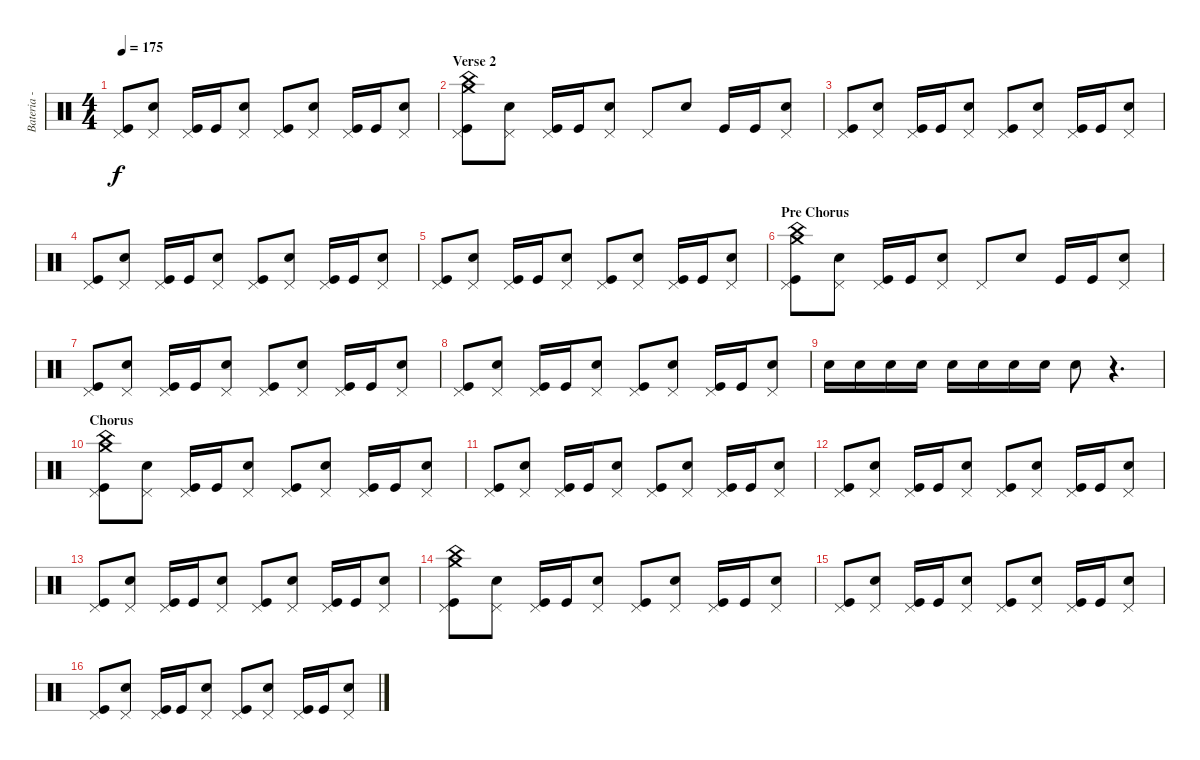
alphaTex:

\track ("Bateria - Larzon" "Bateria - ") {instrument percussion}
\staff {score}
\articulation defaults
\ts (4 4)
\tempo 175
\clef neutral
\ks c
("Kick (hit)" "Pedal Hi-Hat (hit)").8{dy f} ("Snare (hit) 2" "Pedal Hi-Hat (hit)").8 ("Kick (hit)" "Pedal Hi-Hat (hit)").16 "Kick (hit)".16 ("Snare (hit) 2" "Pedal Hi-Hat (hit)").8 ("Pedal Hi-Hat (hit)" "Kick (hit)").8 ("Snare (hit) 2" "Pedal Hi-Hat (hit)").8 ("Kick (hit)" "Pedal Hi-Hat (hit)").16 "Kick (hit)".16 ("Snare (hit) 2" "Pedal Hi-Hat (hit)").8 |
\section ("" "Verse 2")
("China (hit)" "Crash medium (hit)" "Pedal Hi-Hat (hit)" "Kick (hit)").8 ("Snare (hit) 2" "Pedal Hi-Hat (hit)").8 ("Kick (hit)" "Pedal Hi-Hat (hit)").16 "Kick (hit)".16 ("Snare (hit) 2" "Pedal Hi-Hat (hit)").8 "Pedal Hi-Hat (hit)".8 "Snare (hit) 2".8 "Kick (hit)".16 "Kick (hit)".16 ("Snare (hit) 2" "Pedal Hi-Hat (hit)").8 |
("Kick (hit)" "Pedal Hi-Hat (hit)").8 ("Snare (hit) 2" "Pedal Hi-Hat (hit)").8 ("Kick (hit)" "Pedal Hi-Hat (hit)").16 "Kick (hit)".16 ("Snare (hit) 2" "Pedal Hi-Hat (hit)").8 ("Pedal Hi-Hat (hit)" "Kick (hit)").8 ("Snare (hit) 2" "Pedal Hi-Hat (hit)").8 ("Kick (hit)" "Pedal Hi-Hat (hit)").16 "Kick (hit)".16 ("Snare (hit) 2" "Pedal Hi-Hat (hit)").8 |
("Kick (hit)" "Pedal Hi-Hat (hit)").8 ("Snare (hit) 2" "Pedal Hi-Hat (hit)").8 ("Kick (hit)" "Pedal Hi-Hat (hit)").16 "Kick (hit)".16 ("Snare (hit) 2" "Pedal Hi-Hat (hit)").8 ("Pedal Hi-Hat (hit)" "Kick (hit)").8 ("Snare (hit) 2" "Pedal Hi-Hat (hit)").8 ("Kick (hit)" "Pedal Hi-Hat (hit)").16 "Kick (hit)".16 ("Snare (hit) 2" "Pedal Hi-Hat (hit)").8 |
("Kick (hit)" "Pedal Hi-Hat (hit)").8 ("Snare (hit) 2" "Pedal Hi-Hat (hit)").8 ("Kick (hit)" "Pedal Hi-Hat (hit)").16 "Kick (hit)".16 ("Snare (hit) 2" "Pedal Hi-Hat (hit)").8 ("Pedal Hi-Hat (hit)" "Kick (hit)").8 ("Snare (hit) 2" "Pedal Hi-Hat (hit)").8 ("Kick (hit)" "Pedal Hi-Hat (hit)").16 "Kick (hit)".16 ("Snare (hit) 2" "Pedal Hi-Hat (hit)").8 |
\section ("" "Pre Chorus")
("China (hit)" "Crash medium (hit)" "Pedal Hi-Hat (hit)" "Kick (hit)").8 ("Snare (hit) 2" "Pedal Hi-Hat (hit)").8 ("Kick (hit)" "Pedal Hi-Hat (hit)").16 "Kick (hit)".16 ("Snare (hit) 2" "Pedal Hi-Hat (hit)").8 "Pedal Hi-Hat (hit)".8 "Snare (hit) 2".8 "Kick (hit)".16 "Kick (hit)".16 ("Snare (hit) 2" "Pedal Hi-Hat (hit)").8 |
("Kick (hit)" "Pedal Hi-Hat (hit)").8 ("Snare (hit) 2" "Pedal Hi-Hat (hit)").8 ("Kick (hit)" "Pedal Hi-Hat (hit)").16 "Kick (hit)".16 ("Snare (hit) 2" "Pedal Hi-Hat (hit)").8 ("Pedal Hi-Hat (hit)" "Kick (hit)").8 ("Snare (hit) 2" "Pedal Hi-Hat (hit)").8 ("Kick (hit)" "Pedal Hi-Hat (hit)").16 "Kick (hit)".16 ("Snare (hit) 2" "Pedal Hi-Hat (hit)").8 |
("Kick (hit)" "Pedal Hi-Hat (hit)").8 ("Snare (hit) 2" "Pedal Hi-Hat (hit)").8 ("Kick (hit)" "Pedal Hi-Hat (hit)").16 "Kick (hit)".16 ("Snare (hit) 2" "Pedal Hi-Hat (hit)").8 ("Pedal Hi-Hat (hit)" "Kick (hit)").8 ("Snare (hit) 2" "Pedal Hi-Hat (hit)").8 ("Kick (hit)" "Pedal Hi-Hat (hit)").16 "Kick (hit)".16 ("Snare (hit) 2" "Pedal Hi-Hat (hit)").8 |
"Snare (hit) 2".16 "Snare (hit) 2".16 "Snare (hit) 2".16 "Snare (hit) 2".16 "Snare (hit) 2".16 "Snare (hit) 2".16 "Snare (hit) 2".16 "Snare (hit) 2".16 "Snare (hit) 2".8 r.4{d} |
\section ("" "Chorus")
("Kick (hit)" "Pedal Hi-Hat (hit)" "Crash medium (hit)" "China (hit)").8 ("Snare (hit) 2" "Pedal Hi-Hat (hit)").8 ("Kick (hit)" "Pedal Hi-Hat (hit)").16 "Kick (hit)".16 ("Snare (hit) 2" "Pedal Hi-Hat (hit)").8 ("Pedal Hi-Hat (hit)" "Kick (hit)").8 ("Snare (hit) 2" "Pedal Hi-Hat (hit)").8 ("Kick (hit)" "Pedal Hi-Hat (hit)").16 "Kick (hit)".16 ("Snare (hit) 2" "Pedal Hi-Hat (hit)").8 |
("Pedal Hi-Hat (hit)" "Kick (hit)").8 ("Snare (hit) 2" "Pedal Hi-Hat (hit)").8 ("Kick (hit)" "Pedal Hi-Hat (hit)").16 "Kick (hit)".16 ("Snare (hit) 2" "Pedal Hi-Hat (hit)").8 ("Kick (hit)" "Pedal Hi-Hat (hit)").8 ("Snare (hit) 2" "Pedal Hi-Hat (hit)").8 ("Kick (hit)" "Pedal Hi-Hat (hit)").16 "Kick (hit)".16 ("Snare (hit) 2" "Pedal Hi-Hat (hit)").8 |
("Pedal Hi-Hat (hit)" "Kick (hit)").8 ("Snare (hit) 2" "Pedal Hi-Hat (hit)").8 ("Kick (hit)" "Pedal Hi-Hat (hit)").16 "Kick (hit)".16 ("Snare (hit) 2" "Pedal Hi-Hat (hit)").8 ("Kick (hit)" "Pedal Hi-Hat (hit)").8 ("Snare (hit) 2" "Pedal Hi-Hat (hit)").8 ("Kick (hit)" "Pedal Hi-Hat (hit)").16 "Kick (hit)".16 ("Snare (hit) 2" "Pedal Hi-Hat (hit)").8 |
("Pedal Hi-Hat (hit)" "Kick (hit)").8 ("Snare (hit) 2" "Pedal Hi-Hat (hit)").8 ("Kick (hit)" "Pedal Hi-Hat (hit)").16 "Kick (hit)".16 ("Snare (hit) 2" "Pedal Hi-Hat (hit)").8 ("Kick (hit)" "Pedal Hi-Hat (hit)").8 ("Snare (hit) 2" "Pedal Hi-Hat (hit)").8 ("Kick (hit)" "Pedal Hi-Hat (hit)").16 "Kick (hit)".16 ("Snare (hit) 2" "Pedal Hi-Hat (hit)").8 |
("Kick (hit)" "Pedal Hi-Hat (hit)" "Crash medium (hit)" "China (hit)").8 ("Snare (hit) 2" "Pedal Hi-Hat (hit)").8 ("Kick (hit)" "Pedal Hi-Hat (hit)").16 "Kick (hit)".16 ("Snare (hit) 2" "Pedal Hi-Hat (hit)").8 ("Pedal Hi-Hat (hit)" "Kick (hit)").8 ("Snare (hit) 2" "Pedal Hi-Hat (hit)").8 ("Kick (hit)" "Pedal Hi-Hat (hit)").16 "Kick (hit)".16 ("Snare (hit) 2" "Pedal Hi-Hat (hit)").8 |
("Pedal Hi-Hat (hit)" "Kick (hit)").8 ("Snare (hit) 2" "Pedal Hi-Hat (hit)").8 ("Kick (hit)" "Pedal Hi-Hat (hit)").16 "Kick (hit)".16 ("Snare (hit) 2" "Pedal Hi-Hat (hit)").8 ("Kick (hit)" "Pedal Hi-Hat (hit)").8 ("Snare (hit) 2" "Pedal Hi-Hat (hit)").8 ("Kick (hit)" "Pedal Hi-Hat (hit)").16 "Kick (hit)".16 ("Snare (hit) 2" "Pedal Hi-Hat (hit)").8 |
("Pedal Hi-Hat (hit)" "Kick (hit)").8 ("Snare (hit) 2" "Pedal Hi-Hat (hit)").8 ("Kick (hit)" "Pedal Hi-Hat (hit)").16 "Kick (hit)".16 ("Snare (hit) 2" "Pedal Hi-Hat (hit)").8 ("Kick (hit)" "Pedal Hi-Hat (hit)").8 ("Snare (hit) 2" "Pedal Hi-Hat (hit)").8 ("Kick (hit)" "Pedal Hi-Hat (hit)").16 "Kick (hit)".16 ("Snare (hit) 2" "Pedal Hi-Hat (hit)").8
